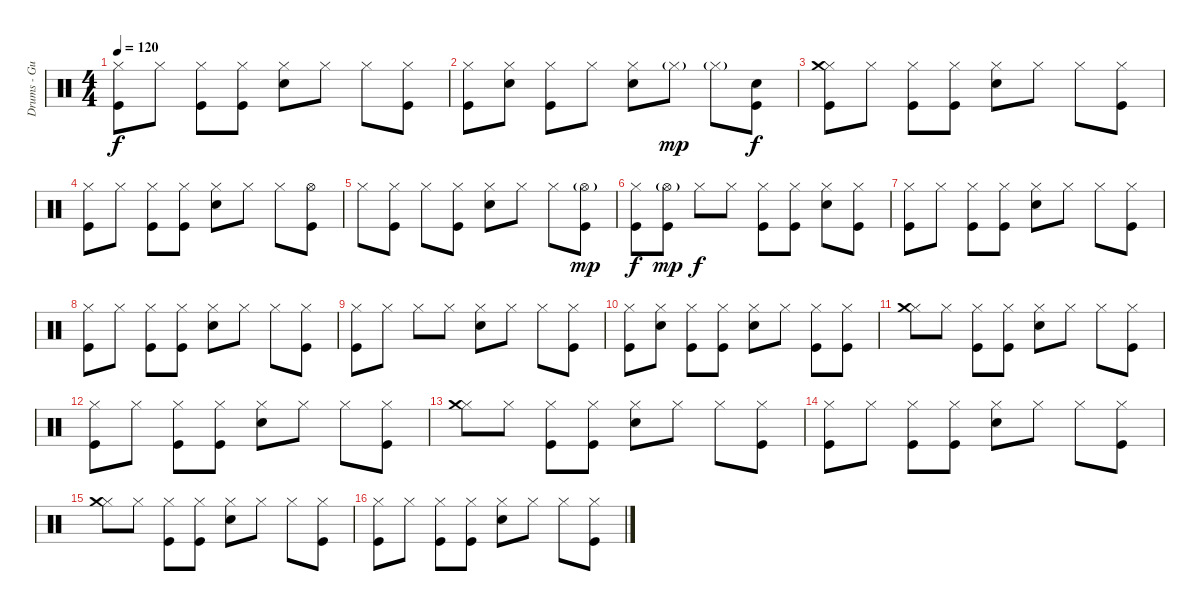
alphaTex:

\track ("Drums - Gustav" "Drums - Gu") {instrument percussion}
\staff {score}
\articulation defaults
\ts (4 4)
\tempo 120
\clef neutral
\ks c
("Kick (hit)" "Hi-Hat (closed)").8{dy f} "Hi-Hat (closed)".8 ("Kick (hit)" "Hi-Hat (closed)").8 ("Kick (hit)" "Hi-Hat (closed)").8 ("Hi-Hat (closed)" "Snare (hit) 2").8 "Hi-Hat (closed)".8 "Hi-Hat (closed)".8 ("Kick (hit)" "Hi-Hat (closed)").8 |
("Kick (hit)" "Hi-Hat (closed)").8 ("Hi-Hat (closed)" "Snare (hit) 2").8 ("Kick (hit)" "Hi-Hat (closed)").8 "Hi-Hat (closed)".8 ("Hi-Hat (closed)" "Snare (hit) 2").8 "Hi-Hat (closed)"{g}.8{dy mp} "Hi-Hat (closed)"{g}.8 ("Kick (hit)" "Snare (hit) 2").8{dy f} |
("Kick (hit)" "Hi-Hat (closed)" "Crash medium (hit)").8 "Hi-Hat (closed)".8 ("Kick (hit)" "Hi-Hat (closed)").8 ("Kick (hit)" "Hi-Hat (closed)").8 ("Hi-Hat (closed)" "Snare (hit) 2").8 "Hi-Hat (closed)".8 "Hi-Hat (closed)".8 ("Kick (hit)" "Hi-Hat (closed)").8 |
("Kick (hit)" "Hi-Hat (closed)").8 "Hi-Hat (closed)".8 ("Kick (hit)" "Hi-Hat (closed)").8 ("Kick (hit)" "Hi-Hat (closed)").8 ("Hi-Hat (closed)" "Snare (hit) 2").8 "Hi-Hat (closed)".8 "Hi-Hat (closed)".8 ("Kick (hit)" "Hi-Hat (open)").8 |
"Hi-Hat (closed)".8 ("Kick (hit)" "Hi-Hat (closed)").8 "Hi-Hat (closed)".8 ("Kick (hit)" "Hi-Hat (closed)").8 ("Hi-Hat (closed)" "Snare (hit) 2").8 "Hi-Hat (closed)".8 "Hi-Hat (closed)".8 ("Kick (hit)" "Hi-Hat (open)"{g}).8{dy mp} |
("Kick (hit)" "Hi-Hat (closed)").8{dy f} ("Kick (hit)" "Hi-Hat (open)"{g}).8{dy mp} "Hi-Hat (closed)".8{dy f} "Hi-Hat (closed)".8 ("Kick (hit)" "Hi-Hat (closed)").8 ("Kick (hit)" "Hi-Hat (closed)").8 ("Hi-Hat (closed)" "Snare (hit) 2").8 ("Kick (hit)" "Hi-Hat (closed)").8 |
("Kick (hit)" "Hi-Hat (closed)").8 "Hi-Hat (closed)".8 ("Kick (hit)" "Hi-Hat (closed)").8 ("Kick (hit)" "Hi-Hat (closed)").8 ("Hi-Hat (closed)" "Snare (hit) 2").8 "Hi-Hat (closed)".8 "Hi-Hat (closed)".8 ("Kick (hit)" "Hi-Hat (closed)").8 |
("Kick (hit)" "Hi-Hat (closed)").8 "Hi-Hat (closed)".8 ("Kick (hit)" "Hi-Hat (closed)").8 ("Kick (hit)" "Hi-Hat (closed)").8 ("Hi-Hat (closed)" "Snare (hit) 2").8 "Hi-Hat (closed)".8 "Hi-Hat (closed)".8 ("Kick (hit)" "Hi-Hat (closed)").8 |
("Kick (hit)" "Hi-Hat (closed)").8 "Hi-Hat (closed)".8 "Hi-Hat (closed)".8 "Hi-Hat (closed)".8 ("Hi-Hat (closed)" "Snare (hit) 2").8 "Hi-Hat (closed)".8 "Hi-Hat (closed)".8 ("Kick (hit)" "Hi-Hat (closed)").8 |
("Kick (hit)" "Hi-Hat (closed)").8 ("Hi-Hat (closed)" "Snare (hit) 2").8 ("Kick (hit)" "Hi-Hat (closed)").8 ("Kick (hit)" "Hi-Hat (closed)").8 ("Hi-Hat (closed)" "Snare (hit) 2").8 "Hi-Hat (closed)".8 ("Kick (hit)" "Hi-Hat (closed)").8 ("Kick (hit)" "Hi-Hat (closed)").8 |
("Hi-Hat (closed)" "Crash medium (hit)").8 "Hi-Hat (closed)".8 ("Kick (hit)" "Hi-Hat (closed)").8 ("Kick (hit)" "Hi-Hat (closed)").8 ("Hi-Hat (closed)" "Snare (hit) 2").8 "Hi-Hat (closed)".8 "Hi-Hat (closed)".8 ("Kick (hit)" "Hi-Hat (closed)").8 |
("Kick (hit)" "Hi-Hat (closed)").8 "Hi-Hat (closed)".8 ("Kick (hit)" "Hi-Hat (closed)").8 ("Kick (hit)" "Hi-Hat (closed)").8 ("Hi-Hat (closed)" "Snare (hit) 2").8 "Hi-Hat (closed)".8 "Hi-Hat (closed)".8 ("Kick (hit)" "Hi-Hat (closed)").8 |
("Hi-Hat (closed)" "Crash medium (hit)").8 "Hi-Hat (closed)".8 ("Kick (hit)" "Hi-Hat (closed)").8 ("Kick (hit)" "Hi-Hat (closed)").8 ("Hi-Hat (closed)" "Snare (hit) 2").8 "Hi-Hat (closed)".8 "Hi-Hat (closed)".8 ("Kick (hit)" "Hi-Hat (closed)").8 |
("Kick (hit)" "Hi-Hat (closed)").8 "Hi-Hat (closed)".8 ("Kick (hit)" "Hi-Hat (closed)").8 ("Kick (hit)" "Hi-Hat (closed)").8 ("Hi-Hat (closed)" "Snare (hit) 2").8 "Hi-Hat (closed)".8 "Hi-Hat (closed)".8 ("Kick (hit)" "Hi-Hat (closed)").8 |
("Hi-Hat (closed)" "Crash medium (hit)").8 "Hi-Hat (closed)".8 ("Kick (hit)" "Hi-Hat (closed)").8 ("Kick (hit)" "Hi-Hat (closed)").8 ("Hi-Hat (closed)" "Snare (hit) 2").8 "Hi-Hat (closed)".8 "Hi-Hat (closed)".8 ("Kick (hit)" "Hi-Hat (closed)").8 |
("Kick (hit)" "Hi-Hat (closed)").8 "Hi-Hat (closed)".8 ("Kick (hit)" "Hi-Hat (closed)").8 ("Kick (hit)" "Hi-Hat (closed)").8 ("Hi-Hat (closed)" "Snare (hit) 2").8 "Hi-Hat (closed)".8 "Hi-Hat (closed)".8 ("Kick (hit)" "Hi-Hat (closed)").8
